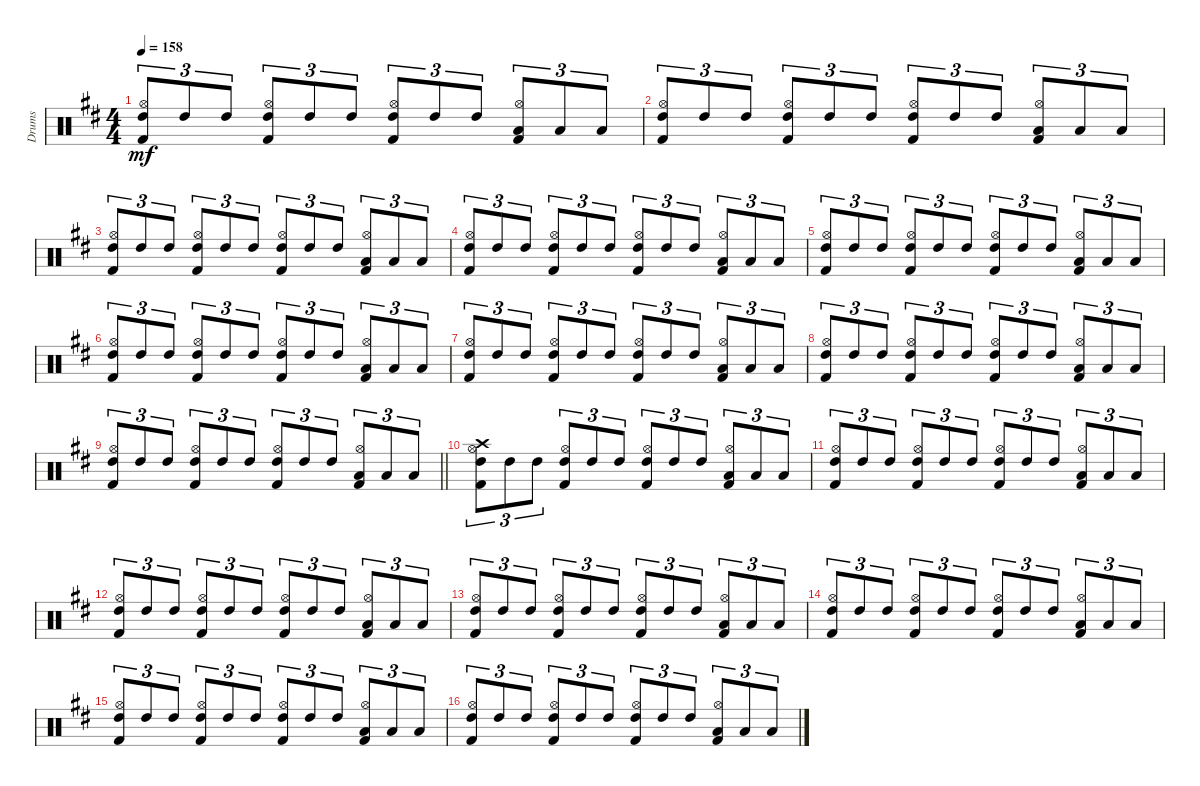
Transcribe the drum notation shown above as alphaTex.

\track ("Drums" "Drums") {instrument percussion}
\staff {score}
\articulation defaults
\ts (4 4)
\tempo 158
\clef neutral
\ks d
("Kick (hit) 2" "Hi-Hat (open)" "High Tom (hit)").8{tu (3 2) dy mf} "High Tom (hit)".8{tu (3 2)} "High Tom (hit)".8{tu (3 2)} ("Kick (hit) 2" "Hi-Hat (open)" "High Tom (hit)").8{tu (3 2)} "High Tom (hit)".8{tu (3 2)} "High Tom (hit)".8{tu (3 2)} ("Kick (hit) 2" "Hi-Hat (open)" "High Tom (hit)").8{tu (3 2)} "High Tom (hit)".8{tu (3 2)} "High Tom (hit)".8{tu (3 2)} ("Kick (hit) 2" "Hi-Hat (open)" "Low Tom (hit)").8{tu (3 2)} "Low Tom (hit)".8{tu (3 2)} "Low Tom (hit)".8{tu (3 2)} |
("Kick (hit) 2" "Hi-Hat (open)" "High Tom (hit)").8{tu (3 2)} "High Tom (hit)".8{tu (3 2)} "High Tom (hit)".8{tu (3 2)} ("Kick (hit) 2" "Hi-Hat (open)" "High Tom (hit)").8{tu (3 2)} "High Tom (hit)".8{tu (3 2)} "High Tom (hit)".8{tu (3 2)} ("Kick (hit) 2" "Hi-Hat (open)" "High Tom (hit)").8{tu (3 2)} "High Tom (hit)".8{tu (3 2)} "High Tom (hit)".8{tu (3 2)} ("Kick (hit) 2" "Hi-Hat (open)" "Low Tom (hit)").8{tu (3 2)} "Low Tom (hit)".8{tu (3 2)} "Low Tom (hit)".8{tu (3 2)} |
("Kick (hit) 2" "Hi-Hat (open)" "High Tom (hit)").8{tu (3 2)} "High Tom (hit)".8{tu (3 2)} "High Tom (hit)".8{tu (3 2)} ("Kick (hit) 2" "Hi-Hat (open)" "High Tom (hit)").8{tu (3 2)} "High Tom (hit)".8{tu (3 2)} "High Tom (hit)".8{tu (3 2)} ("Kick (hit) 2" "Hi-Hat (open)" "High Tom (hit)").8{tu (3 2)} "High Tom (hit)".8{tu (3 2)} "High Tom (hit)".8{tu (3 2)} ("Kick (hit) 2" "Hi-Hat (open)" "Low Tom (hit)").8{tu (3 2)} "Low Tom (hit)".8{tu (3 2)} "Low Tom (hit)".8{tu (3 2)} |
("Kick (hit) 2" "Hi-Hat (open)" "High Tom (hit)").8{tu (3 2)} "High Tom (hit)".8{tu (3 2)} "High Tom (hit)".8{tu (3 2)} ("Kick (hit) 2" "Hi-Hat (open)" "High Tom (hit)").8{tu (3 2)} "High Tom (hit)".8{tu (3 2)} "High Tom (hit)".8{tu (3 2)} ("Kick (hit) 2" "Hi-Hat (open)" "High Tom (hit)").8{tu (3 2)} "High Tom (hit)".8{tu (3 2)} "High Tom (hit)".8{tu (3 2)} ("Kick (hit) 2" "Hi-Hat (open)" "Low Tom (hit)").8{tu (3 2)} "Low Tom (hit)".8{tu (3 2)} "Low Tom (hit)".8{tu (3 2)} |
("Kick (hit) 2" "Hi-Hat (open)" "High Tom (hit)").8{tu (3 2)} "High Tom (hit)".8{tu (3 2)} "High Tom (hit)".8{tu (3 2)} ("Kick (hit) 2" "Hi-Hat (open)" "High Tom (hit)").8{tu (3 2)} "High Tom (hit)".8{tu (3 2)} "High Tom (hit)".8{tu (3 2)} ("Kick (hit) 2" "Hi-Hat (open)" "High Tom (hit)").8{tu (3 2)} "High Tom (hit)".8{tu (3 2)} "High Tom (hit)".8{tu (3 2)} ("Kick (hit) 2" "Hi-Hat (open)" "Low Tom (hit)").8{tu (3 2)} "Low Tom (hit)".8{tu (3 2)} "Low Tom (hit)".8{tu (3 2)} |
("Kick (hit) 2" "Hi-Hat (open)" "High Tom (hit)").8{tu (3 2)} "High Tom (hit)".8{tu (3 2)} "High Tom (hit)".8{tu (3 2)} ("Kick (hit) 2" "Hi-Hat (open)" "High Tom (hit)").8{tu (3 2)} "High Tom (hit)".8{tu (3 2)} "High Tom (hit)".8{tu (3 2)} ("Kick (hit) 2" "Hi-Hat (open)" "High Tom (hit)").8{tu (3 2)} "High Tom (hit)".8{tu (3 2)} "High Tom (hit)".8{tu (3 2)} ("Kick (hit) 2" "Hi-Hat (open)" "Low Tom (hit)").8{tu (3 2)} "Low Tom (hit)".8{tu (3 2)} "Low Tom (hit)".8{tu (3 2)} |
("Kick (hit) 2" "Hi-Hat (open)" "High Tom (hit)").8{tu (3 2)} "High Tom (hit)".8{tu (3 2)} "High Tom (hit)".8{tu (3 2)} ("Kick (hit) 2" "Hi-Hat (open)" "High Tom (hit)").8{tu (3 2)} "High Tom (hit)".8{tu (3 2)} "High Tom (hit)".8{tu (3 2)} ("Kick (hit) 2" "Hi-Hat (open)" "High Tom (hit)").8{tu (3 2)} "High Tom (hit)".8{tu (3 2)} "High Tom (hit)".8{tu (3 2)} ("Kick (hit) 2" "Hi-Hat (open)" "Low Tom (hit)").8{tu (3 2)} "Low Tom (hit)".8{tu (3 2)} "Low Tom (hit)".8{tu (3 2)} |
("Kick (hit) 2" "Hi-Hat (open)" "High Tom (hit)").8{tu (3 2)} "High Tom (hit)".8{tu (3 2)} "High Tom (hit)".8{tu (3 2)} ("Kick (hit) 2" "Hi-Hat (open)" "High Tom (hit)").8{tu (3 2)} "High Tom (hit)".8{tu (3 2)} "High Tom (hit)".8{tu (3 2)} ("Kick (hit) 2" "Hi-Hat (open)" "High Tom (hit)").8{tu (3 2)} "High Tom (hit)".8{tu (3 2)} "High Tom (hit)".8{tu (3 2)} ("Kick (hit) 2" "Hi-Hat (open)" "Low Tom (hit)").8{tu (3 2)} "Low Tom (hit)".8{tu (3 2)} "Low Tom (hit)".8{tu (3 2)} |
\barLineRight lightlight
("Kick (hit) 2" "Hi-Hat (open)" "High Tom (hit)").8{tu (3 2)} "High Tom (hit)".8{tu (3 2)} "High Tom (hit)".8{tu (3 2)} ("Kick (hit) 2" "Hi-Hat (open)" "High Tom (hit)").8{tu (3 2)} "High Tom (hit)".8{tu (3 2)} "High Tom (hit)".8{tu (3 2)} ("Kick (hit) 2" "Hi-Hat (open)" "High Tom (hit)").8{tu (3 2)} "High Tom (hit)".8{tu (3 2)} "High Tom (hit)".8{tu (3 2)} ("Kick (hit) 2" "Hi-Hat (open)" "Low Tom (hit)").8{tu (3 2)} "Low Tom (hit)".8{tu (3 2)} "Low Tom (hit)".8{tu (3 2)} |
("Kick (hit) 2" "Hi-Hat (open)" "High Tom (hit)" "Crash high (hit)").8{tu (3 2)} "High Tom (hit)".8{tu (3 2)} "High Tom (hit)".8{tu (3 2)} ("Kick (hit) 2" "Hi-Hat (open)" "High Tom (hit)").8{tu (3 2)} "High Tom (hit)".8{tu (3 2)} "High Tom (hit)".8{tu (3 2)} ("Kick (hit) 2" "Hi-Hat (open)" "High Tom (hit)").8{tu (3 2)} "High Tom (hit)".8{tu (3 2)} "High Tom (hit)".8{tu (3 2)} ("Kick (hit) 2" "Hi-Hat (open)" "Low Tom (hit)").8{tu (3 2)} "Low Tom (hit)".8{tu (3 2)} "Low Tom (hit)".8{tu (3 2)} |
("Kick (hit) 2" "Hi-Hat (open)" "High Tom (hit)").8{tu (3 2)} "High Tom (hit)".8{tu (3 2)} "High Tom (hit)".8{tu (3 2)} ("Kick (hit) 2" "Hi-Hat (open)" "High Tom (hit)").8{tu (3 2)} "High Tom (hit)".8{tu (3 2)} "High Tom (hit)".8{tu (3 2)} ("Kick (hit) 2" "Hi-Hat (open)" "High Tom (hit)").8{tu (3 2)} "High Tom (hit)".8{tu (3 2)} "High Tom (hit)".8{tu (3 2)} ("Kick (hit) 2" "Hi-Hat (open)" "Low Tom (hit)").8{tu (3 2)} "Low Tom (hit)".8{tu (3 2)} "Low Tom (hit)".8{tu (3 2)} |
("Kick (hit) 2" "Hi-Hat (open)" "High Tom (hit)").8{tu (3 2)} "High Tom (hit)".8{tu (3 2)} "High Tom (hit)".8{tu (3 2)} ("Kick (hit) 2" "Hi-Hat (open)" "High Tom (hit)").8{tu (3 2)} "High Tom (hit)".8{tu (3 2)} "High Tom (hit)".8{tu (3 2)} ("Kick (hit) 2" "Hi-Hat (open)" "High Tom (hit)").8{tu (3 2)} "High Tom (hit)".8{tu (3 2)} "High Tom (hit)".8{tu (3 2)} ("Kick (hit) 2" "Hi-Hat (open)" "Low Tom (hit)").8{tu (3 2)} "Low Tom (hit)".8{tu (3 2)} "Low Tom (hit)".8{tu (3 2)} |
("Kick (hit) 2" "Hi-Hat (open)" "High Tom (hit)").8{tu (3 2)} "High Tom (hit)".8{tu (3 2)} "High Tom (hit)".8{tu (3 2)} ("Kick (hit) 2" "Hi-Hat (open)" "High Tom (hit)").8{tu (3 2)} "High Tom (hit)".8{tu (3 2)} "High Tom (hit)".8{tu (3 2)} ("Kick (hit) 2" "Hi-Hat (open)" "High Tom (hit)").8{tu (3 2)} "High Tom (hit)".8{tu (3 2)} "High Tom (hit)".8{tu (3 2)} ("Kick (hit) 2" "Hi-Hat (open)" "Low Tom (hit)").8{tu (3 2)} "Low Tom (hit)".8{tu (3 2)} "Low Tom (hit)".8{tu (3 2)} |
("Kick (hit) 2" "Hi-Hat (open)" "High Tom (hit)").8{tu (3 2)} "High Tom (hit)".8{tu (3 2)} "High Tom (hit)".8{tu (3 2)} ("Kick (hit) 2" "Hi-Hat (open)" "High Tom (hit)").8{tu (3 2)} "High Tom (hit)".8{tu (3 2)} "High Tom (hit)".8{tu (3 2)} ("Kick (hit) 2" "Hi-Hat (open)" "High Tom (hit)").8{tu (3 2)} "High Tom (hit)".8{tu (3 2)} "High Tom (hit)".8{tu (3 2)} ("Kick (hit) 2" "Hi-Hat (open)" "Low Tom (hit)").8{tu (3 2)} "Low Tom (hit)".8{tu (3 2)} "Low Tom (hit)".8{tu (3 2)} |
("Kick (hit) 2" "Hi-Hat (open)" "High Tom (hit)").8{tu (3 2)} "High Tom (hit)".8{tu (3 2)} "High Tom (hit)".8{tu (3 2)} ("Kick (hit) 2" "Hi-Hat (open)" "High Tom (hit)").8{tu (3 2)} "High Tom (hit)".8{tu (3 2)} "High Tom (hit)".8{tu (3 2)} ("Kick (hit) 2" "Hi-Hat (open)" "High Tom (hit)").8{tu (3 2)} "High Tom (hit)".8{tu (3 2)} "High Tom (hit)".8{tu (3 2)} ("Kick (hit) 2" "Hi-Hat (open)" "Low Tom (hit)").8{tu (3 2)} "Low Tom (hit)".8{tu (3 2)} "Low Tom (hit)".8{tu (3 2)} |
("Kick (hit) 2" "Hi-Hat (open)" "High Tom (hit)").8{tu (3 2)} "High Tom (hit)".8{tu (3 2)} "High Tom (hit)".8{tu (3 2)} ("Kick (hit) 2" "Hi-Hat (open)" "High Tom (hit)").8{tu (3 2)} "High Tom (hit)".8{tu (3 2)} "High Tom (hit)".8{tu (3 2)} ("Kick (hit) 2" "Hi-Hat (open)" "High Tom (hit)").8{tu (3 2)} "High Tom (hit)".8{tu (3 2)} "High Tom (hit)".8{tu (3 2)} ("Kick (hit) 2" "Hi-Hat (open)" "Low Tom (hit)").8{tu (3 2)} "Low Tom (hit)".8{tu (3 2)} "Low Tom (hit)".8{tu (3 2)}
